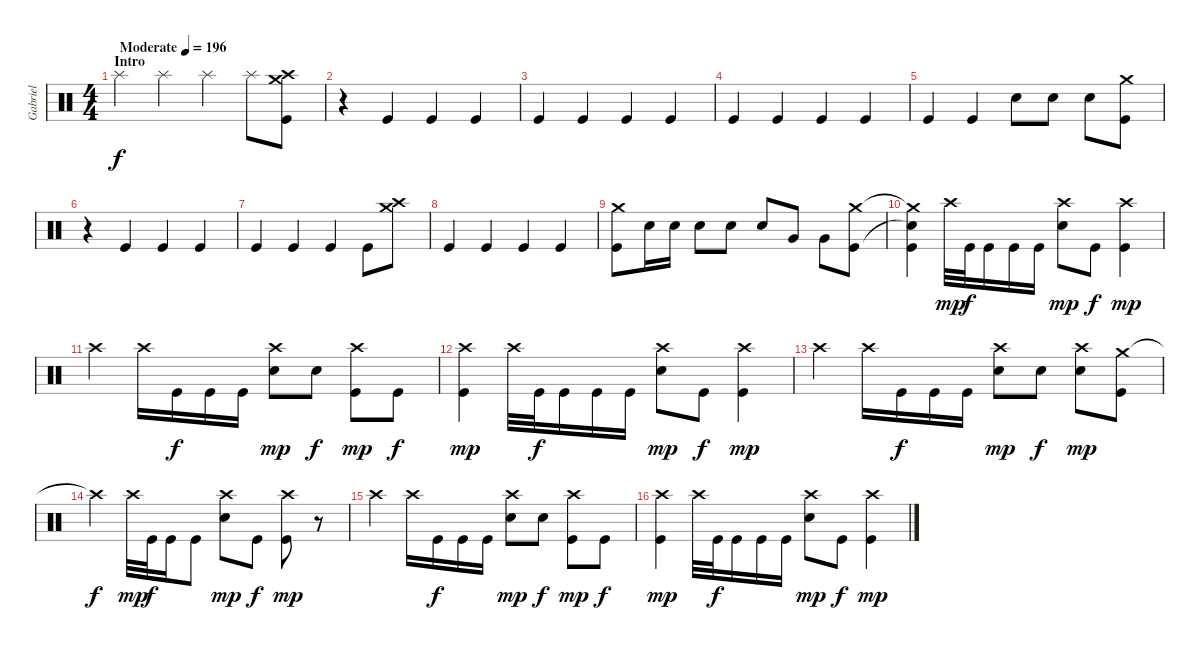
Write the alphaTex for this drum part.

\track ("Gabriel" "Gabriel") {instrument percussion}
\staff {score}
\articulation defaults
\ts (4 4)
\section ("" "Intro")
\tempo (196 "Moderate")
\clef neutral
\ks aminor "Splash (hit)".4{dy f} "Splash (hit)".4 "Splash (hit)".4 "Splash (hit)".8
("Crash medium (hit)" "Crash high (hit)" "Kick (hit)").8 |
r.4 "Kick (hit)".4 "Kick (hit)".4 "Kick (hit)".4 |
"Kick (hit)".4 "Kick (hit)".4 "Kick (hit)".4 "Kick (hit)".4 |
"Kick (hit)".4 "Kick (hit)".4 "Kick (hit)".4 "Kick (hit)".4 |
"Kick (hit)".4 "Kick (hit)".4 "Snare (hit) 2".8 "Snare (hit) 2".8 "Snare (hit) 2".8 ("Crash medium (hit)" "Kick (hit)").8 |
r.4 "Kick (hit)".4 "Kick (hit)".4 "Kick (hit)".4 |
"Kick (hit)".4 "Kick (hit)".4 "Kick (hit)".4 "Kick (hit)".8 ("Crash medium (hit)" "Crash high (hit)").8 |
"Kick (hit)".4 "Kick (hit)".4 "Kick (hit)".4 "Kick (hit)".4 |
("Crash medium (hit)" "Kick (hit)").8 "Snare (hit) 2".16 "Snare (hit) 2".16 "Snare (hit) 2".8 "Snare (hit) 2".8 "Snare (hit) 2".8 "Very Low Tom (hit)".8 "Very Low Tom (hit)".8 ("Crash medium (hit)" "Kick (hit)").8 |
("Crash medium (hit)"{t} "Snare (hit)"{t} "Kick (hit)").4 "Crash high (hit)".32{dy mp} "Kick (hit)".32{dy f} "Kick (hit)".16 "Kick (hit)".16 "Kick (hit)".16 ("Crash high (hit)" "Snare (hit) 2").8{dy mp} "Kick (hit)".8{dy f} ("Crash high (hit)" "Kick (hit)").4{dy mp} |
"Crash high (hit)".4 "Crash high (hit)".16 "Kick (hit)".16{dy f} "Kick (hit)".16 "Kick (hit)".16 ("Crash high (hit)" "Snare (hit) 2").8{dy mp} "Snare (hit) 2".8{dy f} ("Crash high (hit)" "Kick (hit)").8{dy mp} "Kick (hit)".8{dy f} |
("Crash high (hit)" "Kick (hit)").4{dy mp} "Crash high (hit)".32 "Kick (hit)".32{dy f} "Kick (hit)".16 "Kick (hit)".16 "Kick (hit)".16 ("Crash high (hit)" "Snare (hit) 2").8{dy mp} "Kick (hit)".8{dy f} ("Crash high (hit)" "Kick (hit)").4{dy mp} |
"Crash high (hit)".4 "Crash high (hit)".16 "Kick (hit)".16{dy f} "Kick (hit)".16 "Kick (hit)".16 ("Crash high (hit)" "Snare (hit) 2").8{dy mp} "Snare (hit) 2".8{dy f} ("Crash high (hit)" "Snare (hit) 2").8{dy mp} ("Crash medium (hit)" "Kick (hit)").8 |
"Crash high (hit)"{t}.4{dy f} "Crash high (hit)".32{dy mp} "Kick (hit)".32{dy f} "Kick (hit)".16 "Kick (hit)".8 ("Crash high (hit)" "Snare (hit) 2").8{dy mp} "Kick (hit)".8{dy f} ("Crash high (hit)" "Kick (hit)").8{dy mp} r.8 |
"Crash high (hit)".4 "Crash high (hit)".16 "Kick (hit)".16{dy f} "Kick (hit)".16 "Kick (hit)".16 ("Crash high (hit)" "Snare (hit) 2").8{dy mp} "Snare (hit) 2".8{dy f} ("Crash high (hit)" "Kick (hit)").8{dy mp} "Kick (hit)".8{dy f} |
("Crash high (hit)" "Kick (hit)").4{dy mp} "Crash high (hit)".32 "Kick (hit)".32{dy f} "Kick (hit)".16 "Kick (hit)".16 "Kick (hit)".16 ("Crash high (hit)" "Snare (hit) 2").8{dy mp} "Kick (hit)".8{dy f} ("Crash high (hit)" "Kick (hit)").4{dy mp}
